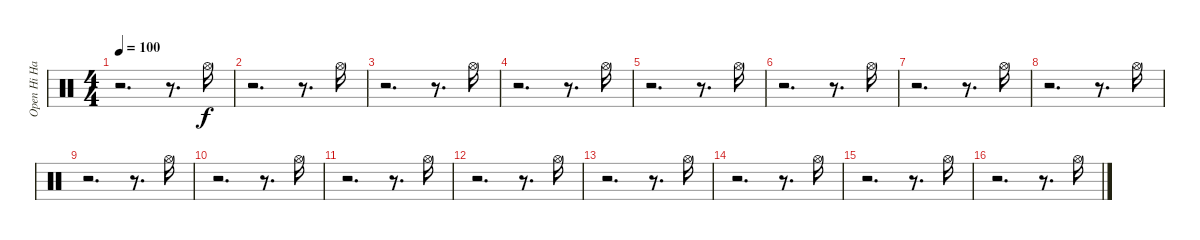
\track ("Open Hi Hat" "Open Hi Ha") {instrument percussion}
\staff {score}
\articulation defaults
\ts (4 4)
\tempo 100
\clef neutral
\ks c
r.2{d dy f} r.8{d} "Hi-Hat (open)".16 |
r.2{d} r.8{d} "Hi-Hat (open)".16 |
r.2{d} r.8{d} "Hi-Hat (open)".16 |
r.2{d} r.8{d} "Hi-Hat (open)".16 |
r.2{d} r.8{d} "Hi-Hat (open)".16 |
r.2{d} r.8{d} "Hi-Hat (open)".16 |
r.2{d} r.8{d} "Hi-Hat (open)".16 |
r.2{d} r.8{d} "Hi-Hat (open)".16 |
r.2{d} r.8{d} "Hi-Hat (open)".16 |
r.2{d} r.8{d} "Hi-Hat (open)".16 |
r.2{d} r.8{d} "Hi-Hat (open)".16 |
r.2{d} r.8{d} "Hi-Hat (open)".16 |
r.2{d} r.8{d} "Hi-Hat (open)".16 |
r.2{d} r.8{d} "Hi-Hat (open)".16 |
r.2{d} r.8{d} "Hi-Hat (open)".16 |
r.2{d} r.8{d} "Hi-Hat (open)".16
